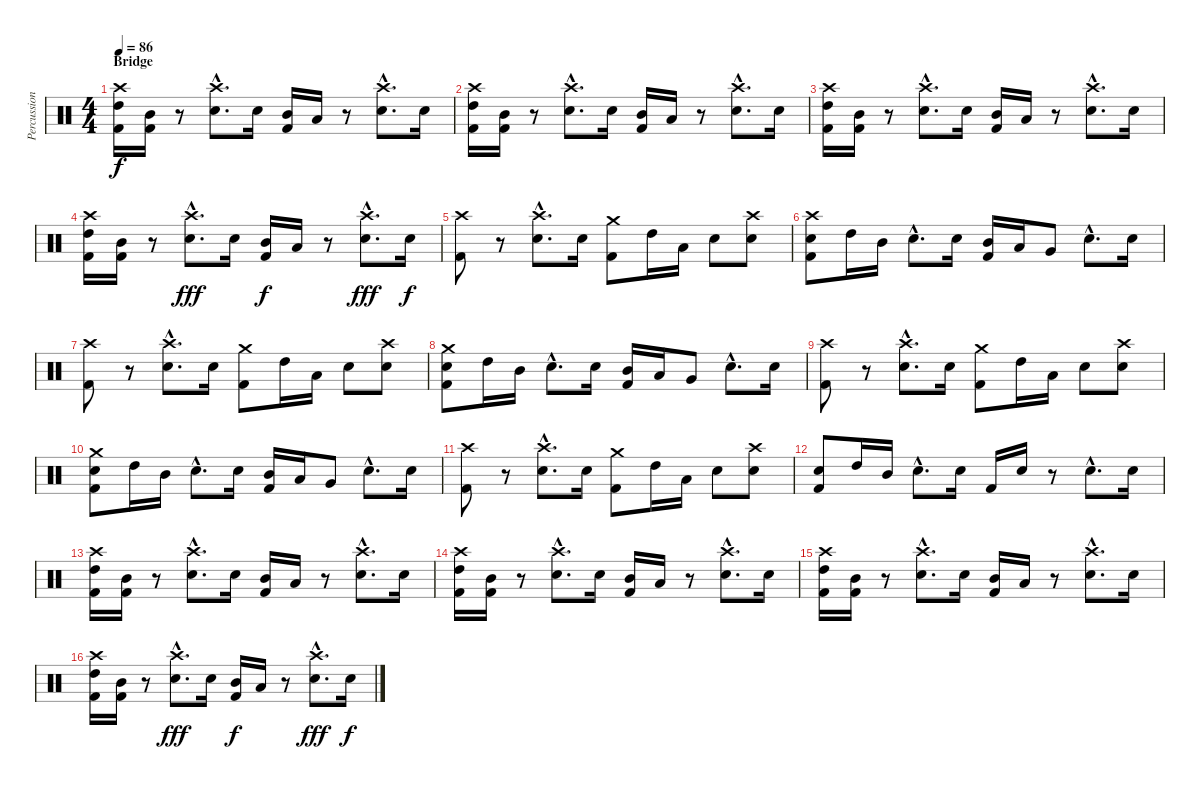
\track ("Percussion" "Percussion") {instrument percussion}
\staff {score}
\articulation defaults
\ts (4 4)
\section ("" "Bridge")
\tempo 86
\clef neutral
\ks c
("Crash high (hit)" "High Tom (hit)" "Kick (hit) 2").16{dy f} ("Mid Tom (hit)" "Kick (hit) 2").16 r.8 ("Crash high (hit)"{hac} "Snare (hit) 2"{hac}).8{d} "Snare (hit) 2".16 ("Mid Tom (hit)" "Kick (hit) 2").16 "Low Tom (hit)".16 r.8 ("Crash high (hit)"{hac} "Snare (hit) 2"{hac}).8{d} "Snare (hit) 2".16 |
("Crash high (hit)" "High Tom (hit)" "Kick (hit) 2").16 ("Mid Tom (hit)" "Kick (hit) 2").16 r.8 ("Crash high (hit)"{hac} "Snare (hit) 2"{hac}).8{d} "Snare (hit) 2".16 ("Mid Tom (hit)" "Kick (hit) 2").16 "Low Tom (hit)".16 r.8 ("Crash high (hit)"{hac} "Snare (hit) 2"{hac}).8{d} "Snare (hit) 2".16 |
("Crash high (hit)" "High Tom (hit)" "Kick (hit) 2").16 ("Mid Tom (hit)" "Kick (hit) 2").16 r.8 ("Crash high (hit)"{hac} "Snare (hit) 2"{hac}).8{d} "Snare (hit) 2".16 ("Mid Tom (hit)" "Kick (hit) 2").16 "Low Tom (hit)".16 r.8 ("Crash high (hit)"{hac} "Snare (hit) 2"{hac}).8{d} "Snare (hit) 2".16 |
("Crash high (hit)" "High Tom (hit)" "Kick (hit) 2").16 ("Mid Tom (hit)" "Kick (hit) 2").16 r.8 ("Crash high (hit)"{hac} "Snare (hit) 2"{hac}).8{d dy fff} "Snare (hit) 2".16 ("Mid Tom (hit)" "Kick (hit) 2").16{dy f} "Low Tom (hit)".16 r.8 ("Crash high (hit)"{hac} "Snare (hit) 2"{hac}).8{d dy fff} "Snare (hit) 2".16{dy f} |
("Crash high (hit)" "Kick (hit) 2").8 r.8 ("Crash high (hit)"{hac} "Snare (hit) 2"{hac}).8{d} "Snare (hit) 2".16 ("Crash medium (hit)" "Kick (hit) 2").8 "High Tom (hit)".16 "Low Tom (hit)".16 "Snare (hit) 2".8 ("Crash high (hit)" "Snare (hit) 2").8 |
("Crash high (hit)" "Snare (hit) 2" "Kick (hit) 2").8 "High Tom (hit)".16 "Mid Tom (hit)".16 "Snare (hit) 2"{hac}.8{d} "Snare (hit) 2".16 ("Mid Tom (hit)" "Kick (hit) 2").16 "Low Tom (hit)".16 "Very Low Tom (hit)".8 "Snare (hit) 2"{hac}.8{d} "Snare (hit) 2".16 |
("Crash high (hit)" "Kick (hit) 2").8 r.8 ("Crash high (hit)"{hac} "Snare (hit) 2"{hac}).8{d} "Snare (hit) 2".16 ("Crash medium (hit)" "Kick (hit) 2").8 "High Tom (hit)".16 "Low Tom (hit)".16 "Snare (hit) 2".8 ("Crash high (hit)" "Snare (hit) 2").8 |
("Crash medium (hit)" "Snare (hit) 2" "Kick (hit) 2").8 "High Tom (hit)".16 "Mid Tom (hit)".16 "Snare (hit) 2"{hac}.8{d} "Snare (hit) 2".16 ("Mid Tom (hit)" "Kick (hit) 2").16 "Low Tom (hit)".16 "Very Low Tom (hit)".8 "Snare (hit) 2"{hac}.8{d} "Snare (hit) 2".16 |
("Crash high (hit)" "Kick (hit) 2").8 r.8 ("Crash high (hit)"{hac} "Snare (hit) 2"{hac}).8{d} "Snare (hit) 2".16 ("Crash medium (hit)" "Kick (hit) 2").8 "High Tom (hit)".16 "Low Tom (hit)".16 "Snare (hit) 2".8 ("Crash high (hit)" "Snare (hit) 2").8 |
("Crash medium (hit)" "Snare (hit) 2" "Kick (hit) 2").8 "High Tom (hit)".16 "Mid Tom (hit)".16 "Snare (hit) 2"{hac}.8{d} "Snare (hit) 2".16 ("Mid Tom (hit)" "Kick (hit) 2").16 "Low Tom (hit)".16 "Very Low Tom (hit)".8 "Snare (hit) 2"{hac}.8{d} "Snare (hit) 2".16 |
("Crash high (hit)" "Kick (hit) 2").8 r.8 ("Crash high (hit)"{hac} "Snare (hit) 2"{hac}).8{d} "Snare (hit) 2".16 ("Crash medium (hit)" "Kick (hit) 2").8 "High Tom (hit)".16 "Low Tom (hit)".16 "Snare (hit) 2".8 ("Crash high (hit)" "Snare (hit) 2").8 |
("Snare (hit) 2" "Kick (hit) 2").8 "High Tom (hit)".16 "Mid Tom (hit)".16 "Snare (hit) 2"{hac}.8{d} "Snare (hit) 2".16 "Kick (hit) 2".16 "Snare (hit) 2".16 r.8 "Snare (hit) 2"{hac}.8{d} "Snare (hit) 2".16 |
("Crash high (hit)" "High Tom (hit)" "Kick (hit) 2").16 ("Mid Tom (hit)" "Kick (hit) 2").16 r.8 ("Crash high (hit)"{hac} "Snare (hit) 2"{hac}).8{d} "Snare (hit) 2".16 ("Mid Tom (hit)" "Kick (hit) 2").16 "Low Tom (hit)".16 r.8 ("Crash high (hit)"{hac} "Snare (hit) 2"{hac}).8{d} "Snare (hit) 2".16 |
("Crash high (hit)" "High Tom (hit)" "Kick (hit) 2").16 ("Mid Tom (hit)" "Kick (hit) 2").16 r.8 ("Crash high (hit)"{hac} "Snare (hit) 2"{hac}).8{d} "Snare (hit) 2".16 ("Mid Tom (hit)" "Kick (hit) 2").16 "Low Tom (hit)".16 r.8 ("Crash high (hit)"{hac} "Snare (hit) 2"{hac}).8{d} "Snare (hit) 2".16 |
("Crash high (hit)" "High Tom (hit)" "Kick (hit) 2").16 ("Mid Tom (hit)" "Kick (hit) 2").16 r.8 ("Crash high (hit)"{hac} "Snare (hit) 2"{hac}).8{d} "Snare (hit) 2".16 ("Mid Tom (hit)" "Kick (hit) 2").16 "Low Tom (hit)".16 r.8 ("Crash high (hit)"{hac} "Snare (hit) 2"{hac}).8{d} "Snare (hit) 2".16 |
("Crash high (hit)" "High Tom (hit)" "Kick (hit) 2").16 ("Mid Tom (hit)" "Kick (hit) 2").16 r.8 ("Crash high (hit)"{hac} "Snare (hit) 2"{hac}).8{d dy fff} "Snare (hit) 2".16 ("Mid Tom (hit)" "Kick (hit) 2").16{dy f} "Low Tom (hit)".16 r.8 ("Crash high (hit)"{hac} "Snare (hit) 2"{hac}).8{d dy fff} "Snare (hit) 2".16{dy f}
